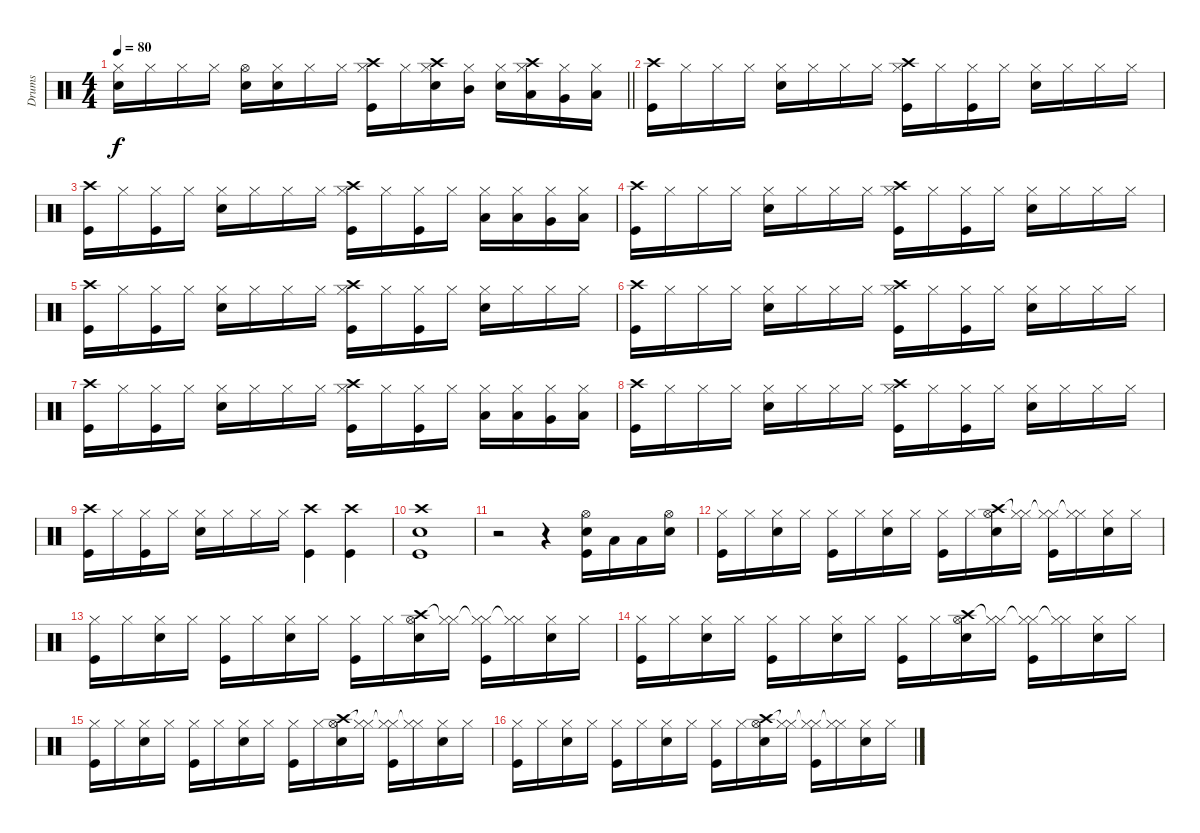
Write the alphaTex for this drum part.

\track ("Drums" "Drums") {instrument percussion}
\staff {score}
\articulation defaults
\ts (4 4)
\tempo 80
\clef neutral
\barLineRight lightlight
\ks c
("Hi-Hat (closed)" "Snare (hit) 2").16{dy f} "Hi-Hat (closed)".16 "Hi-Hat (closed)".16 "Hi-Hat (closed)".16 ("Hi-Hat (open)" "Snare (hit) 2").16 ("Hi-Hat (closed)" "Snare (hit) 2").16 "Hi-Hat (closed)".16 "Hi-Hat (closed)".16 ("Crash high (hit)" "Hi-Hat (closed)" "Kick (hit)").16 "Hi-Hat (closed)".16 ("Crash high (hit)" "Hi-Hat (closed)" "Snare (hit) 2").16 ("Hi-Hat (closed)" "Mid Tom (hit)").16 ("Hi-Hat (closed)" "Snare (hit) 2").16 ("Crash high (hit)" "Hi-Hat (closed)" "Low Tom (hit)").16 ("Hi-Hat (closed)" "Very Low Tom (hit)").16 ("Hi-Hat (closed)" "Low Floor Tom (hit)").16 |
("Crash high (hit)" "Kick (hit)").16 "Hi-Hat (closed)".16 "Hi-Hat (closed)".16 "Hi-Hat (closed)".16 ("Hi-Hat (closed)" "Snare (hit) 2").16 "Hi-Hat (closed)".16 "Hi-Hat (closed)".16 "Hi-Hat (closed)".16 ("Crash high (hit)" "Hi-Hat (closed)" "Kick (hit)").16 "Hi-Hat (closed)".16 ("Hi-Hat (closed)" "Kick (hit)").16 "Hi-Hat (closed)".16 ("Hi-Hat (closed)" "Snare (hit) 2").16 "Hi-Hat (closed)".16 "Hi-Hat (closed)".16 "Hi-Hat (closed)".16 |
("Crash high (hit)" "Kick (hit)").16 "Hi-Hat (closed)".16 ("Hi-Hat (closed)" "Kick (hit)").16 "Hi-Hat (closed)".16 ("Hi-Hat (closed)" "Snare (hit) 2").16 "Hi-Hat (closed)".16 "Hi-Hat (closed)".16 "Hi-Hat (closed)".16 ("Crash high (hit)" "Hi-Hat (closed)" "Kick (hit)").16 "Hi-Hat (closed)".16 ("Hi-Hat (closed)" "Kick (hit)").16 "Hi-Hat (closed)".16 ("Hi-Hat (closed)" "Low Tom (hit)").16 ("Hi-Hat (closed)" "Low Tom (hit)").16 ("Hi-Hat (closed)" "Very Low Tom (hit)").16 ("Hi-Hat (closed)" "Low Floor Tom (hit)").16 |
("Crash high (hit)" "Kick (hit)").16 "Hi-Hat (closed)".16 "Hi-Hat (closed)".16 "Hi-Hat (closed)".16 ("Hi-Hat (closed)" "Snare (hit) 2").16 "Hi-Hat (closed)".16 "Hi-Hat (closed)".16 "Hi-Hat (closed)".16 ("Crash high (hit)" "Hi-Hat (closed)" "Kick (hit)").16 "Hi-Hat (closed)".16 ("Hi-Hat (closed)" "Kick (hit)").16 "Hi-Hat (closed)".16 ("Hi-Hat (closed)" "Snare (hit) 2").16 "Hi-Hat (closed)".16 "Hi-Hat (closed)".16 "Hi-Hat (closed)".16 |
("Crash high (hit)" "Kick (hit)").16 "Hi-Hat (closed)".16 ("Hi-Hat (closed)" "Kick (hit)").16 "Hi-Hat (closed)".16 ("Hi-Hat (closed)" "Snare (hit) 2").16 "Hi-Hat (closed)".16 "Hi-Hat (closed)".16 "Hi-Hat (closed)".16 ("Crash high (hit)" "Hi-Hat (closed)" "Kick (hit)").16 "Hi-Hat (closed)".16 ("Hi-Hat (closed)" "Kick (hit)").16 "Hi-Hat (closed)".16 ("Hi-Hat (closed)" "Snare (hit) 2").16 "Hi-Hat (closed)".16 "Hi-Hat (closed)".16 "Hi-Hat (closed)".16 |
("Crash high (hit)" "Kick (hit)").16 "Hi-Hat (closed)".16 "Hi-Hat (closed)".16 "Hi-Hat (closed)".16 ("Hi-Hat (closed)" "Snare (hit) 2").16 "Hi-Hat (closed)".16 "Hi-Hat (closed)".16 "Hi-Hat (closed)".16 ("Crash high (hit)" "Hi-Hat (closed)" "Kick (hit)").16 "Hi-Hat (closed)".16 ("Hi-Hat (closed)" "Kick (hit)").16 "Hi-Hat (closed)".16 ("Hi-Hat (closed)" "Snare (hit) 2").16 "Hi-Hat (closed)".16 "Hi-Hat (closed)".16 "Hi-Hat (closed)".16 |
("Crash high (hit)" "Kick (hit)").16 "Hi-Hat (closed)".16 ("Hi-Hat (closed)" "Kick (hit)").16 "Hi-Hat (closed)".16 ("Hi-Hat (closed)" "Snare (hit) 2").16 "Hi-Hat (closed)".16 "Hi-Hat (closed)".16 "Hi-Hat (closed)".16 ("Crash high (hit)" "Hi-Hat (closed)" "Kick (hit)").16 "Hi-Hat (closed)".16 ("Hi-Hat (closed)" "Kick (hit)").16 "Hi-Hat (closed)".16 ("Hi-Hat (closed)" "Low Tom (hit)").16 ("Hi-Hat (closed)" "Low Tom (hit)").16 ("Hi-Hat (closed)" "Very Low Tom (hit)").16 ("Hi-Hat (closed)" "Low Floor Tom (hit)").16 |
("Crash high (hit)" "Kick (hit)").16 "Hi-Hat (closed)".16 "Hi-Hat (closed)".16 "Hi-Hat (closed)".16 ("Hi-Hat (closed)" "Snare (hit) 2").16 "Hi-Hat (closed)".16 "Hi-Hat (closed)".16 "Hi-Hat (closed)".16 ("Crash high (hit)" "Hi-Hat (closed)" "Kick (hit)").16 "Hi-Hat (closed)".16 ("Hi-Hat (closed)" "Kick (hit)").16 "Hi-Hat (closed)".16 ("Hi-Hat (closed)" "Snare (hit) 2").16 "Hi-Hat (closed)".16 "Hi-Hat (closed)".16 "Hi-Hat (closed)".16 |
("Crash high (hit)" "Kick (hit)").16 "Hi-Hat (closed)".16 ("Hi-Hat (closed)" "Kick (hit)").16 "Hi-Hat (closed)".16 ("Hi-Hat (closed)" "Snare (hit) 2").16 "Hi-Hat (closed)".16 "Hi-Hat (closed)".16 "Hi-Hat (closed)".16 ("Crash high (hit)" "Kick (hit)").4 ("Crash high (hit)" "Kick (hit)").4 |
("Crash high (hit)" "Snare (hit) 2" "Kick (hit)").1 |
r.2 r.4 ("Hi-Hat (open)" "Snare (hit) 2" "Kick (hit)").16 "Low Tom (hit)".16 "Low Tom (hit)".16 ("Hi-Hat (open)" "Snare (hit) 2").16 |
("Hi-Hat (closed)" "Kick (hit)").16 "Hi-Hat (closed)".16 ("Hi-Hat (closed)" "Snare (hit) 2").16 "Hi-Hat (closed)".16 ("Hi-Hat (closed)" "Kick (hit)").16 "Hi-Hat (closed)".16 ("Hi-Hat (closed)" "Snare (hit) 2").16 "Hi-Hat (closed)".16 ("Hi-Hat (closed)" "Kick (hit)").16 "Hi-Hat (closed)".16 ("Crash high (hit)" "Hi-Hat (open)" "Snare (hit) 2").16 ("Hi-Hat (closed)"{t} "Hi-Hat (closed)").16 ("Hi-Hat (closed)"{t} "Hi-Hat (closed)" "Kick (hit)").16 ("Hi-Hat (closed)"{t} "Hi-Hat (closed)").16 ("Hi-Hat (closed)" "Snare (hit) 2").16 "Hi-Hat (closed)".16 |
("Hi-Hat (closed)" "Kick (hit)").16 "Hi-Hat (closed)".16 ("Hi-Hat (closed)" "Snare (hit) 2").16 "Hi-Hat (closed)".16 ("Hi-Hat (closed)" "Kick (hit)").16 "Hi-Hat (closed)".16 ("Hi-Hat (closed)" "Snare (hit) 2").16 "Hi-Hat (closed)".16 ("Hi-Hat (closed)" "Kick (hit)").16 "Hi-Hat (closed)".16 ("Crash high (hit)" "Hi-Hat (open)" "Snare (hit) 2").16 ("Hi-Hat (closed)"{t} "Hi-Hat (closed)").16 ("Hi-Hat (closed)"{t} "Hi-Hat (closed)" "Kick (hit)").16 ("Hi-Hat (closed)"{t} "Hi-Hat (closed)").16 ("Hi-Hat (closed)" "Snare (hit) 2").16 "Hi-Hat (closed)".16 |
("Hi-Hat (closed)" "Kick (hit)").16 "Hi-Hat (closed)".16 ("Hi-Hat (closed)" "Snare (hit) 2").16 "Hi-Hat (closed)".16 ("Hi-Hat (closed)" "Kick (hit)").16 "Hi-Hat (closed)".16 ("Hi-Hat (closed)" "Snare (hit) 2").16 "Hi-Hat (closed)".16 ("Hi-Hat (closed)" "Kick (hit)").16 "Hi-Hat (closed)".16 ("Crash high (hit)" "Hi-Hat (open)" "Snare (hit) 2").16 ("Hi-Hat (closed)"{t} "Hi-Hat (closed)").16 ("Hi-Hat (closed)"{t} "Hi-Hat (closed)" "Kick (hit)").16 ("Hi-Hat (closed)"{t} "Hi-Hat (closed)").16 ("Hi-Hat (closed)" "Snare (hit) 2").16 "Hi-Hat (closed)".16 |
("Hi-Hat (closed)" "Kick (hit)").16 "Hi-Hat (closed)".16 ("Hi-Hat (closed)" "Snare (hit) 2").16 "Hi-Hat (closed)".16 ("Hi-Hat (closed)" "Kick (hit)").16 "Hi-Hat (closed)".16 ("Hi-Hat (closed)" "Snare (hit) 2").16 "Hi-Hat (closed)".16 ("Hi-Hat (closed)" "Kick (hit)").16 "Hi-Hat (closed)".16 ("Crash high (hit)" "Hi-Hat (open)" "Snare (hit) 2").16 ("Hi-Hat (closed)"{t} "Hi-Hat (closed)").16 ("Hi-Hat (closed)"{t} "Hi-Hat (closed)" "Kick (hit)").16 ("Hi-Hat (closed)"{t} "Hi-Hat (closed)").16 ("Hi-Hat (closed)" "Snare (hit) 2").16 "Hi-Hat (closed)".16 |
("Hi-Hat (closed)" "Kick (hit)").16 "Hi-Hat (closed)".16 ("Hi-Hat (closed)" "Snare (hit) 2").16 "Hi-Hat (closed)".16 ("Hi-Hat (closed)" "Kick (hit)").16 "Hi-Hat (closed)".16 ("Hi-Hat (closed)" "Snare (hit) 2").16 "Hi-Hat (closed)".16 ("Hi-Hat (closed)" "Kick (hit)").16 "Hi-Hat (closed)".16 ("Crash high (hit)" "Hi-Hat (open)" "Snare (hit) 2").16 ("Hi-Hat (closed)"{t} "Hi-Hat (closed)").16 ("Hi-Hat (closed)"{t} "Hi-Hat (closed)" "Kick (hit)").16 ("Hi-Hat (closed)"{t} "Hi-Hat (closed)").16 ("Hi-Hat (closed)" "Snare (hit) 2").16 "Hi-Hat (closed)".16
